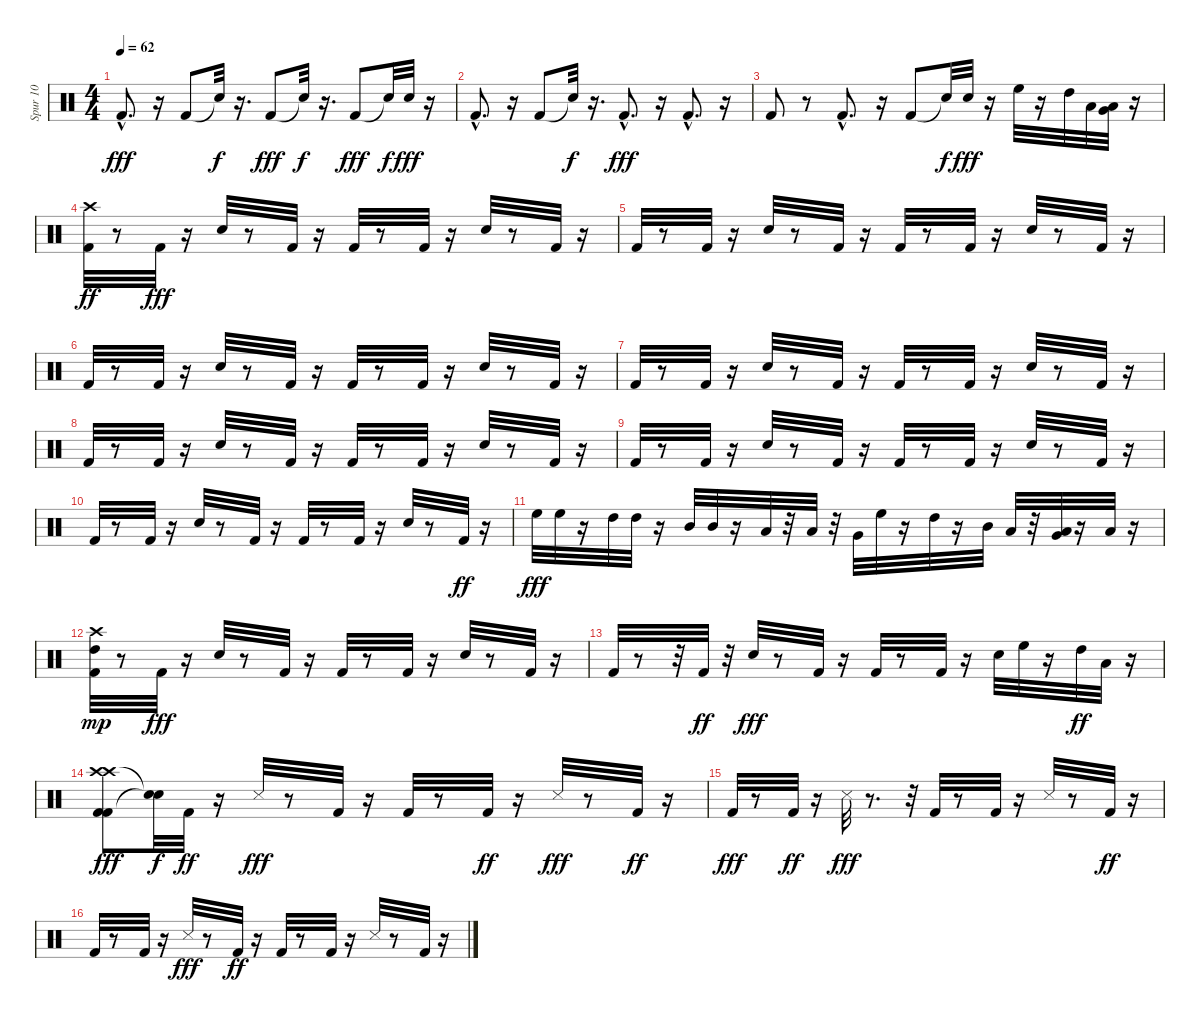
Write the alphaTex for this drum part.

\track ("Spur 10" "Spur 10") {instrument percussion}
\staff {score}
\articulation defaults
\ts (4 4)
\tempo 62
\clef neutral
\ks c "Kick (hit) 2"{hac}.8{d dy fff}
r.16 "Kick (hit) 2".8 "Snare (hit)"{t}.32{dy f} r.16{d} "Kick (hit) 2".8{dy fff} "Snare (hit)"{t}.32{dy f} r.16{d} "Kick (hit) 2".8{dy fff} "Snare (hit)"{t}.32{dy f} "Electric Snare (hit)".32{dy fff} r.16 |
"Kick (hit) 2"{hac}.8{d} r.16 "Kick (hit) 2".8 "Snare (hit)"{t}.32{dy f} r.16{d} "Kick (hit) 2"{hac}.8{d dy fff} r.16 "Kick (hit) 2"{hac}.8{d} r.16 |
"Kick (hit) 2".8 r.8 "Kick (hit) 2"{hac}.8{d} r.16 "Kick (hit) 2".8 "Snare (hit)"{t}.32{dy f} "Electric Snare (hit)".32{dy fff} r.16 "High Floor Tom (hit)".32 r.16 "High Tom (hit)".32 "Low Tom (hit)".32 ("Very Low Tom (hit)" "Low Floor Tom (hit)").32 r.16 |
("Crash high (hit)" "Kick (hit) 2").32{dy ff} r.8 "Kick (hit) 2".32{dy fff} r.16 "Electric Snare (hit)".32 r.8 "Kick (hit) 2".32 r.16 "Kick (hit) 2".32 r.8 "Kick (hit) 2".32 r.16 "Electric Snare (hit)".32 r.8 "Kick (hit) 2".32 r.16 |
"Kick (hit) 2".32 r.8 "Kick (hit) 2".32 r.16 "Electric Snare (hit)".32 r.8 "Kick (hit) 2".32 r.16 "Kick (hit) 2".32 r.8 "Kick (hit) 2".32 r.16 "Electric Snare (hit)".32 r.8 "Kick (hit) 2".32 r.16 |
"Kick (hit) 2".32 r.8 "Kick (hit) 2".32 r.16 "Electric Snare (hit)".32 r.8 "Kick (hit) 2".32 r.16 "Kick (hit) 2".32 r.8 "Kick (hit) 2".32 r.16 "Electric Snare (hit)".32 r.8 "Kick (hit) 2".32 r.16 |
"Kick (hit) 2".32 r.8 "Kick (hit) 2".32 r.16 "Electric Snare (hit)".32 r.8 "Kick (hit) 2".32 r.16 "Kick (hit) 2".32 r.8 "Kick (hit) 2".32 r.16 "Electric Snare (hit)".32 r.8 "Kick (hit) 2".32 r.16 |
"Kick (hit) 2".32 r.8 "Kick (hit) 2".32 r.16 "Electric Snare (hit)".32 r.8 "Kick (hit) 2".32 r.16 "Kick (hit) 2".32 r.8 "Kick (hit) 2".32 r.16 "Electric Snare (hit)".32 r.8 "Kick (hit) 2".32 r.16 |
"Kick (hit) 2".32 r.8 "Kick (hit) 2".32 r.16 "Electric Snare (hit)".32 r.8 "Kick (hit) 2".32 r.16 "Kick (hit) 2".32 r.8 "Kick (hit) 2".32 r.16 "Electric Snare (hit)".32 r.8 "Kick (hit) 2".32 r.16 |
"Kick (hit) 2".32 r.8 "Kick (hit) 2".32 r.16 "Electric Snare (hit)".32 r.8 "Kick (hit) 2".32 r.16 "Kick (hit) 2".32 r.8 "Kick (hit) 2".32 r.16 "Electric Snare (hit)".32 r.8 "Kick (hit) 2".32{dy ff} r.16 |
"High Floor Tom (hit)".32{dy fff} "High Floor Tom (hit)".32 r.16 "High Tom (hit)".32 "High Tom (hit)".32 r.16 "Mid Tom (hit)".32 "Mid Tom (hit)".32 r.16 "Low Tom (hit)".32 r.32 "Low Tom (hit)".32 r.32 "Very Low Tom (hit)".32 "High Floor Tom (hit)".32 r.16 "High Tom (hit)".32 r.16 "Mid Tom (hit)".32 "Low Tom (hit)".32 r.32 ("Very Low Tom (hit)" "Low Tom (hit)").32 r.16 "Low Floor Tom (hit)".32 r.16 |
("Kick (hit) 2" "Crash high (hit)" "High Tom (hit)").32{dy mp} r.8 "Kick (hit) 2".32{dy fff} r.16 "Electric Snare (hit)".32 r.8 "Kick (hit) 2".32 r.16 "Kick (hit) 2".32 r.8 "Kick (hit) 2".32 r.16 "Electric Snare (hit)".32 r.8 "Kick (hit) 2".32 r.16 |
"Kick (hit) 2".32 r.8 r.32 "Kick (hit) 2".32{dy ff} r.32 "Electric Snare (hit)".32{dy fff} r.8 "Kick (hit) 2".32 r.16 "Kick (hit) 2".32 r.8 "Kick (hit) 2".32 r.16 "Electric Snare (hit)".32 "High Floor Tom (hit)".32 r.16 "High Tom (hit)".32{dy ff} "Low Tom (hit)".32 r.16 |
("Crash high (hit)" "Kick (hit) 2" "Crash high (hit)" "Kick (hit) 2").8{dy fff} ("Snare (hit)"{t} "Snare (hit)"{t}).32{dy f} "Kick (hit) 2".32{dy ff} r.16 "Snare (side stick) 3".32{dy fff} r.8 "Kick (hit) 2".32 r.16 "Kick (hit) 2".32 r.8 "Kick (hit) 2".32{dy ff} r.16 "Snare (side stick) 3".32{dy fff} r.8 "Kick (hit) 2".32{dy ff} r.16 |
"Kick (hit) 2".32{dy fff} r.8 "Kick (hit) 2".32{dy ff} r.16 "Snare (side stick) 3".32{dy fff} r.8{d} r.32 "Kick (hit) 2".32 r.8 "Kick (hit) 2".32 r.16 "Snare (side stick) 3".32 r.8 "Kick (hit) 2".32{dy ff} r.16 |
"Kick (hit) 2".32 r.8 "Kick (hit) 2".32 r.16 "Snare (side stick) 3".32{dy fff} r.8 "Kick (hit) 2".32{dy ff} r.16 "Kick (hit) 2".32 r.8 "Kick (hit) 2".32 r.16 "Snare (side stick) 3".32 r.8 "Kick (hit) 2".32 r.16
